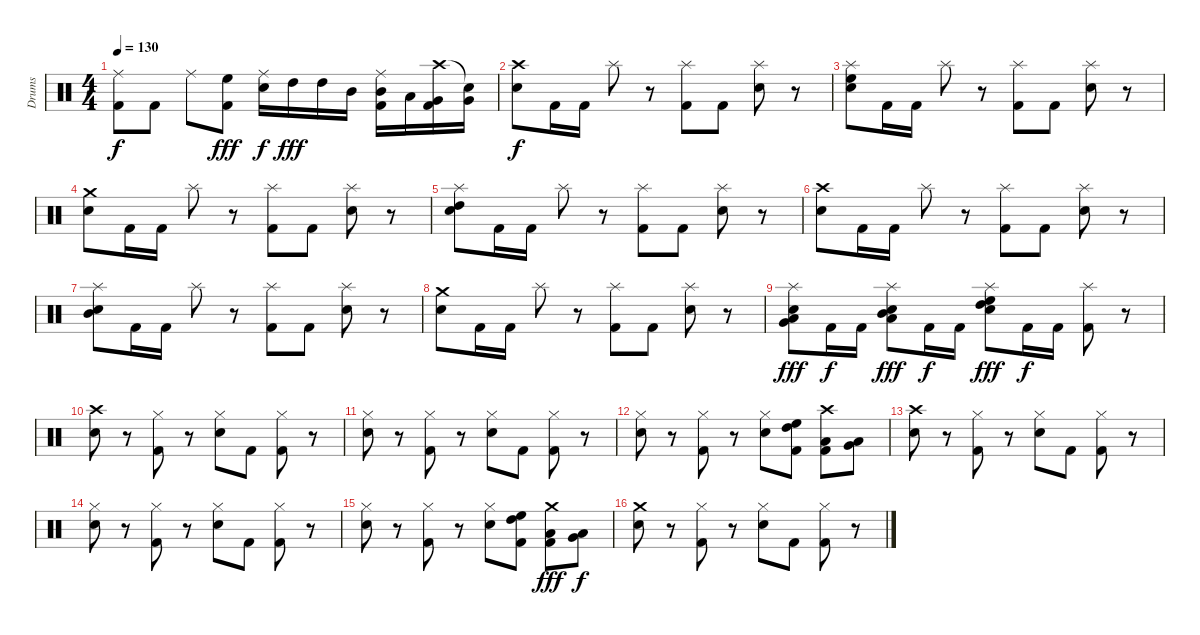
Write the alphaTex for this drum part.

\track ("Drums" "Drums") {instrument percussion}
\staff {score}
\articulation defaults
\ts (4 4)
\tempo 130
\clef neutral
\ks c
("Ride (middle)" "Kick (hit) 2").8{dy f} "Kick (hit) 2".8 "Ride (middle)".8 ("High Floor Tom (hit)" "Kick (hit) 2").8{dy fff} ("Ride (middle)" "Snare (hit) 2").16{dy f} "High Tom (hit)".16{dy fff} "High Tom (hit)".16 "Mid Tom (hit)".16 ("Ride (middle)" "Mid Tom (hit)" "Kick (hit) 2").16 "Low Tom (hit)".16 ("Crash high (hit)" "Very Low Tom (hit)" "Kick (hit) 2").16 ("Snare (hit)"{t} "Very Low Tom (hit)").16 |
("Crash high (hit)" "Snare (hit) 2").8{dy f} "Kick (hit) 2".16 "Kick (hit) 2".16 "Splash (hit)".8 r.8 ("Splash (hit)" "Kick (hit) 2").8 "Kick (hit) 2".8 ("Splash (hit)" "Snare (hit) 2").8 r.8 |
("Splash (hit)" "High Floor Tom (hit)" "Snare (hit) 2").8 "Kick (hit) 2".16 "Kick (hit) 2".16 "Splash (hit)".8 r.8 ("Splash (hit)" "Kick (hit) 2").8 "Kick (hit) 2".8 ("Splash (hit)" "Snare (hit) 2").8 r.8 |
("Crash medium (hit)" "Snare (hit) 2").8 "Kick (hit) 2".16 "Kick (hit) 2".16 "Splash (hit)".8 r.8 ("Splash (hit)" "Kick (hit) 2").8 "Kick (hit) 2".8 ("Splash (hit)" "Snare (hit) 2").8 r.8 |
("Splash (hit)" "High Tom (hit)" "Snare (hit) 2").8 "Kick (hit) 2".16 "Kick (hit) 2".16 "Splash (hit)".8 r.8 ("Splash (hit)" "Kick (hit) 2").8 "Kick (hit) 2".8 ("Splash (hit)" "Snare (hit) 2").8 r.8 |
("Crash high (hit)" "Snare (hit) 2").8 "Kick (hit) 2".16 "Kick (hit) 2".16 "Splash (hit)".8 r.8 ("Splash (hit)" "Kick (hit) 2").8 "Kick (hit) 2".8 ("Splash (hit)" "Snare (hit) 2").8 r.8 |
("Splash (hit)" "Mid Tom (hit)" "Snare (hit) 2").8 "Kick (hit) 2".16 "Kick (hit) 2".16 "Splash (hit)".8 r.8 ("Splash (hit)" "Kick (hit) 2").8 "Kick (hit) 2".8 ("Splash (hit)" "Snare (hit) 2").8 r.8 |
("Crash medium (hit)" "Snare (hit) 2").8 "Kick (hit) 2".16 "Kick (hit) 2".16 "Splash (hit)".8 r.8 ("Splash (hit)" "Kick (hit) 2").8 "Kick (hit) 2".8 ("Splash (hit)" "Snare (hit) 2").8 r.8 |
("Splash (hit)" "Very Low Tom (hit)" "Low Tom (hit)" "Snare (hit) 2").8{dy fff} "Kick (hit) 2".16{dy f} "Kick (hit) 2".16 ("Splash (hit)" "Mid Tom (hit)" "Low Tom (hit)" "Snare (hit) 2").8{dy fff} "Kick (hit) 2".16{dy f} "Kick (hit) 2".16 ("Splash (hit)" "High Floor Tom (hit)" "High Tom (hit)" "Snare (hit) 2").8{dy fff} "Kick (hit) 2".16{dy f} "Kick (hit) 2".16 ("Splash (hit)" "Kick (hit) 2").8 r.8 |
("Crash high (hit)" "Snare (hit) 2").8 r.8 ("Hi-Hat (closed)" "Kick (hit) 2").8 r.8 ("Hi-Hat (closed)" "Snare (hit) 2").8 "Kick (hit) 2".8 ("Hi-Hat (closed)" "Kick (hit) 2").8 r.8 |
("Hi-Hat (closed)" "Snare (hit) 2").8 r.8 ("Hi-Hat (closed)" "Kick (hit) 2").8 r.8 ("Hi-Hat (closed)" "Snare (hit) 2").8 "Kick (hit) 2".8 ("Hi-Hat (closed)" "Kick (hit) 2").8 r.8 |
("Hi-Hat (closed)" "Snare (hit) 2").8 r.8 ("Hi-Hat (closed)" "Kick (hit) 2").8 r.8 ("Hi-Hat (closed)" "Snare (hit) 2").8 ("High Floor Tom (hit)" "High Tom (hit)" "Kick (hit) 2").8 ("Crash high (hit)" "Low Tom (hit)" "Kick (hit) 2").8 ("Very Low Tom (hit)" "Low Floor Tom (hit)").8 |
("Crash high (hit)" "Snare (hit) 2").8 r.8 ("Hi-Hat (closed)" "Kick (hit) 2").8 r.8 ("Hi-Hat (closed)" "Snare (hit) 2").8 "Kick (hit) 2".8 ("Hi-Hat (closed)" "Kick (hit) 2").8 r.8 |
("Hi-Hat (closed)" "Snare (hit) 2").8 r.8 ("Hi-Hat (closed)" "Kick (hit) 2").8 r.8 ("Hi-Hat (closed)" "Snare (hit) 2").8 "Kick (hit) 2".8 ("Hi-Hat (closed)" "Kick (hit) 2").8 r.8 |
("Hi-Hat (closed)" "Snare (hit) 2").8 r.8 ("Hi-Hat (closed)" "Kick (hit) 2").8 r.8 ("Hi-Hat (closed)" "Snare (hit) 2").8 ("High Floor Tom (hit)" "High Tom (hit)" "Kick (hit) 2").8 ("Crash medium (hit)" "Low Tom (hit)" "Kick (hit) 2").8{dy fff} ("Very Low Tom (hit)" "Low Floor Tom (hit)").8{dy f} |
("Crash medium (hit)" "Snare (hit) 2").8 r.8 ("Hi-Hat (closed)" "Kick (hit) 2").8 r.8 ("Hi-Hat (closed)" "Snare (hit) 2").8 "Kick (hit) 2".8 ("Hi-Hat (closed)" "Kick (hit) 2").8 r.8
